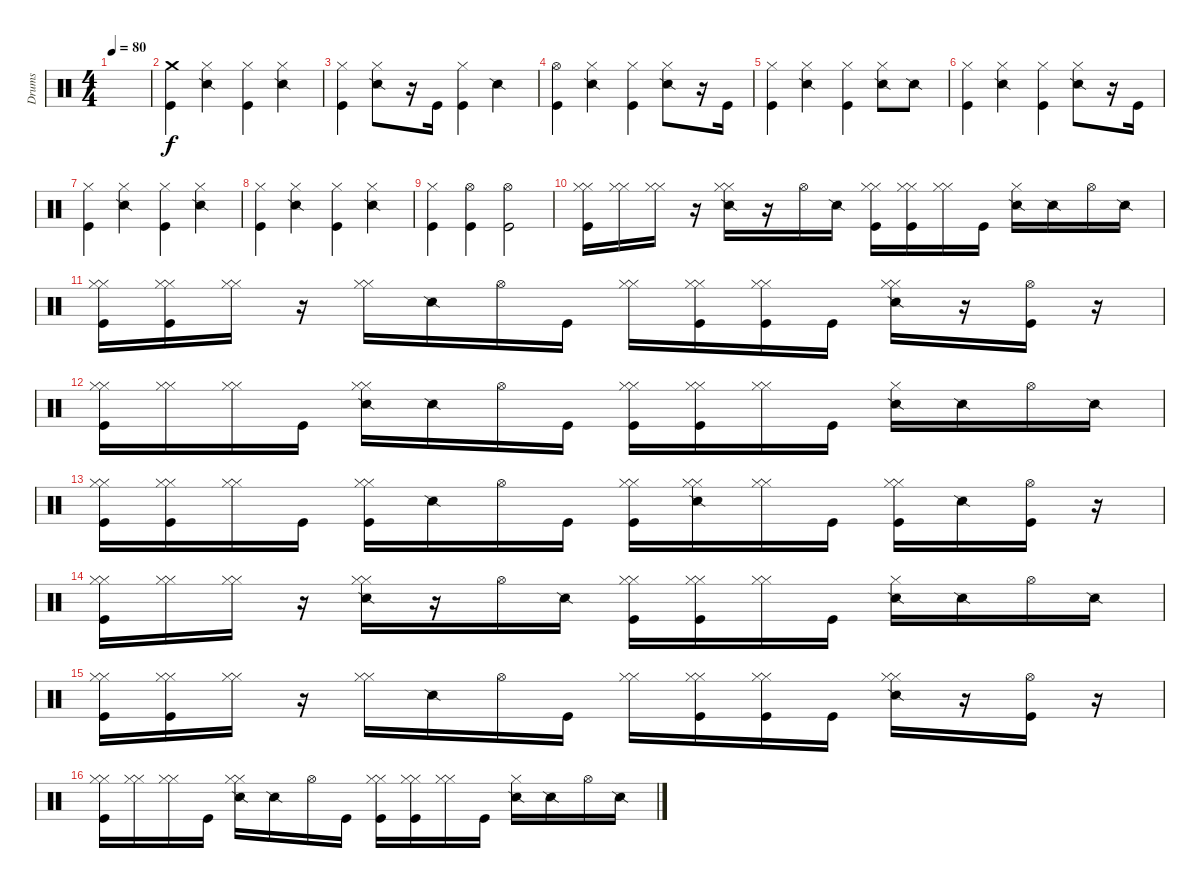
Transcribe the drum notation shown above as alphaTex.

\track ("Drums" "Drums") {instrument percussion}
\staff {score}
\articulation defaults
\ts (4 4)
\tempo 80
\clef neutral
\ks c
|
("Crash medium (hit)" "Kick (hit)").4 ("Hi-Hat (closed)" "Snare (side stick) 2").4 ("Hi-Hat (closed)" "Kick (hit)").4 ("Hi-Hat (closed)" "Snare (side stick) 2").4 |
("Hi-Hat (closed)" "Kick (hit)").4 ("Hi-Hat (closed)" "Snare (side stick) 2").8 r.16 "Kick (hit)".16 ("Hi-Hat (closed)" "Kick (hit)").4 "Snare (side stick) 2".4 |
("Hi-Hat (open)" "Kick (hit)").4 ("Hi-Hat (closed)" "Snare (side stick) 2").4 ("Hi-Hat (closed)" "Kick (hit)").4 ("Hi-Hat (closed)" "Snare (side stick) 2").8 r.16 "Kick (hit)".16 |
("Hi-Hat (closed)" "Kick (hit)").4 ("Hi-Hat (closed)" "Snare (side stick) 2").4 ("Hi-Hat (closed)" "Kick (hit)").4 ("Hi-Hat (closed)" "Snare (side stick) 2").8 "Snare (side stick) 2".8 |
("Hi-Hat (closed)" "Kick (hit)").4 ("Hi-Hat (closed)" "Snare (side stick) 2").4 ("Hi-Hat (closed)" "Kick (hit)").4 ("Hi-Hat (closed)" "Snare (side stick) 2").8 r.16 "Kick (hit)".16 |
("Hi-Hat (closed)" "Kick (hit)").4 ("Hi-Hat (closed)" "Snare (side stick) 2").4 ("Hi-Hat (closed)" "Kick (hit)").4 ("Hi-Hat (closed)" "Snare (side stick) 2").4 |
("Hi-Hat (closed)" "Kick (hit)").4 ("Hi-Hat (closed)" "Snare (side stick) 2").4 ("Hi-Hat (closed)" "Kick (hit)").4 ("Hi-Hat (closed)" "Snare (side stick) 2").4 |
("Hi-Hat (closed)" "Kick (hit)").4 ("Hi-Hat (open)" "Kick (hit)").4 ("Hi-Hat (open)" "Kick (hit)").2 |
("Hi-Hat (closed)" "Hi-Hat (closed)" "Kick (hit)").16 ("Hi-Hat (closed)" "Hi-Hat (closed)").16 ("Hi-Hat (closed)" "Hi-Hat (closed)").16 r.16 ("Hi-Hat (closed)" "Hi-Hat (closed)" "Snare (side stick) 2").16 r.16 "Hi-Hat (open)".16 "Snare (side stick) 2".16 ("Hi-Hat (closed)" "Hi-Hat (closed)" "Kick (hit)").16 ("Hi-Hat (closed)" "Hi-Hat (closed)" "Kick (hit)").16 ("Hi-Hat (closed)" "Hi-Hat (closed)").16 "Kick (hit)".16 ("Hi-Hat (closed)" "Snare (side stick) 2").16 "Snare (side stick) 2".16 "Hi-Hat (open)".16 "Snare (side stick) 2".16 |
("Hi-Hat (closed)" "Hi-Hat (closed)" "Kick (hit)").16 ("Hi-Hat (closed)" "Hi-Hat (closed)" "Kick (hit)").16 ("Hi-Hat (closed)" "Hi-Hat (closed)").16 r.16 ("Hi-Hat (closed)" "Hi-Hat (closed)").16 "Snare (side stick) 2".16 "Hi-Hat (open)".16 "Kick (hit)".16 ("Hi-Hat (closed)" "Hi-Hat (closed)").16 ("Hi-Hat (closed)" "Hi-Hat (closed)" "Kick (hit)").16 ("Hi-Hat (closed)" "Hi-Hat (closed)" "Kick (hit)").16 "Kick (hit)".16 ("Hi-Hat (closed)" "Hi-Hat (closed)" "Snare (side stick) 2").16 r.16 ("Hi-Hat (open)" "Kick (hit)").16 r.16 |
("Hi-Hat (closed)" "Hi-Hat (closed)" "Kick (hit)").16 ("Hi-Hat (closed)" "Hi-Hat (closed)").16 ("Hi-Hat (closed)" "Hi-Hat (closed)").16 "Kick (hit)".16 ("Hi-Hat (closed)" "Hi-Hat (closed)" "Snare (side stick) 2").16 "Snare (side stick) 2".16 "Hi-Hat (open)".16 "Kick (hit)".16 ("Hi-Hat (closed)" "Hi-Hat (closed)" "Kick (hit)").16 ("Hi-Hat (closed)" "Hi-Hat (closed)" "Kick (hit)").16 ("Hi-Hat (closed)" "Hi-Hat (closed)").16 "Kick (hit)".16 ("Hi-Hat (closed)" "Snare (side stick) 2").16 "Snare (side stick) 2".16 "Hi-Hat (open)".16 "Snare (side stick) 2".16 |
("Hi-Hat (closed)" "Hi-Hat (closed)" "Kick (hit)").16 ("Hi-Hat (closed)" "Hi-Hat (closed)" "Kick (hit)").16 ("Hi-Hat (closed)" "Hi-Hat (closed)").16 "Kick (hit)".16 ("Hi-Hat (closed)" "Hi-Hat (closed)" "Kick (hit)").16 "Snare (side stick) 2".16 "Hi-Hat (open)".16 "Kick (hit)".16 ("Hi-Hat (closed)" "Hi-Hat (closed)" "Kick (hit)").16 ("Hi-Hat (closed)" "Hi-Hat (closed)" "Snare (side stick) 2").16 ("Hi-Hat (closed)" "Hi-Hat (closed)").16 "Kick (hit)".16 ("Hi-Hat (closed)" "Hi-Hat (closed)" "Kick (hit)").16 "Snare (side stick) 2".16 ("Hi-Hat (open)" "Kick (hit)").16 r.16 |
("Hi-Hat (closed)" "Hi-Hat (closed)" "Kick (hit)").16 ("Hi-Hat (closed)" "Hi-Hat (closed)").16 ("Hi-Hat (closed)" "Hi-Hat (closed)").16 r.16 ("Hi-Hat (closed)" "Hi-Hat (closed)" "Snare (side stick) 2").16 r.16 "Hi-Hat (open)".16 "Snare (side stick) 2".16 ("Hi-Hat (closed)" "Hi-Hat (closed)" "Kick (hit)").16 ("Hi-Hat (closed)" "Hi-Hat (closed)" "Kick (hit)").16 ("Hi-Hat (closed)" "Hi-Hat (closed)").16 "Kick (hit)".16 ("Hi-Hat (closed)" "Snare (side stick) 2").16 "Snare (side stick) 2".16 "Hi-Hat (open)".16 "Snare (side stick) 2".16 |
("Hi-Hat (closed)" "Hi-Hat (closed)" "Kick (hit)").16 ("Hi-Hat (closed)" "Hi-Hat (closed)" "Kick (hit)").16 ("Hi-Hat (closed)" "Hi-Hat (closed)").16 r.16 ("Hi-Hat (closed)" "Hi-Hat (closed)").16 "Snare (side stick) 2".16 "Hi-Hat (open)".16 "Kick (hit)".16 ("Hi-Hat (closed)" "Hi-Hat (closed)").16 ("Hi-Hat (closed)" "Hi-Hat (closed)" "Kick (hit)").16 ("Hi-Hat (closed)" "Hi-Hat (closed)" "Kick (hit)").16 "Kick (hit)".16 ("Hi-Hat (closed)" "Hi-Hat (closed)" "Snare (side stick) 2").16 r.16 ("Hi-Hat (open)" "Kick (hit)").16 r.16 |
("Hi-Hat (closed)" "Hi-Hat (closed)" "Kick (hit)").16 ("Hi-Hat (closed)" "Hi-Hat (closed)").16 ("Hi-Hat (closed)" "Hi-Hat (closed)").16 "Kick (hit)".16 ("Hi-Hat (closed)" "Hi-Hat (closed)" "Snare (side stick) 2").16 "Snare (side stick) 2".16 "Hi-Hat (open)".16 "Kick (hit)".16 ("Hi-Hat (closed)" "Hi-Hat (closed)" "Kick (hit)").16 ("Hi-Hat (closed)" "Hi-Hat (closed)" "Kick (hit)").16 ("Hi-Hat (closed)" "Hi-Hat (closed)").16 "Kick (hit)".16 ("Hi-Hat (closed)" "Snare (side stick) 2").16 "Snare (side stick) 2".16 "Hi-Hat (open)".16 "Snare (side stick) 2".16
